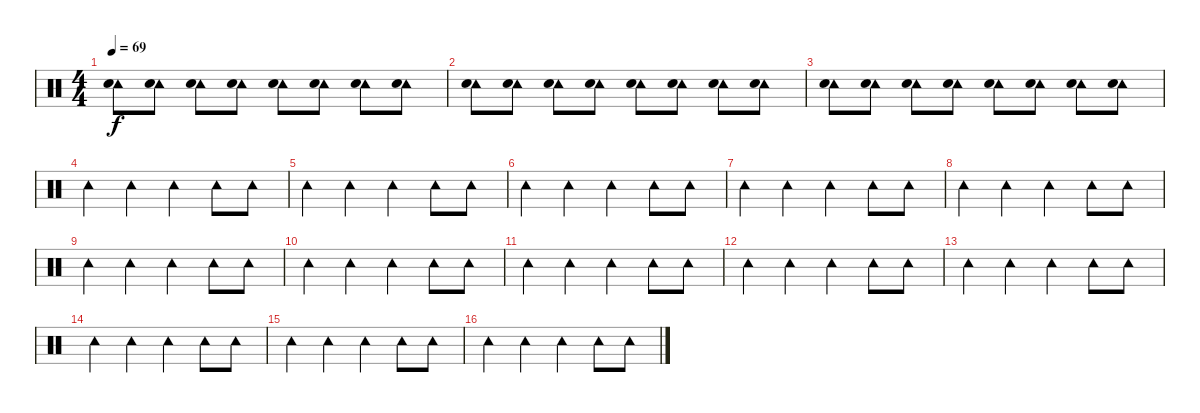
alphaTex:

\track "" {instrument percussion}
\staff {score}
\articulation defaults
\ts (4 4)
\tempo 69
\clef neutral
\ks c
("Tambourine (hit)" "Snare (hit) 2").8{dy f} ("Tambourine (hit)" "Snare (hit) 2").8 ("Tambourine (hit)" "Snare (hit) 2").8 ("Tambourine (hit)" "Snare (hit) 2").8 ("Tambourine (hit)" "Snare (hit) 2").8 ("Tambourine (hit)" "Snare (hit) 2").8 ("Tambourine (hit)" "Snare (hit) 2").8 ("Tambourine (hit)" "Snare (hit) 2").8 |
("Tambourine (hit)" "Snare (hit) 2").8 ("Tambourine (hit)" "Snare (hit) 2").8 ("Tambourine (hit)" "Snare (hit) 2").8 ("Tambourine (hit)" "Snare (hit) 2").8 ("Tambourine (hit)" "Snare (hit) 2").8 ("Tambourine (hit)" "Snare (hit) 2").8 ("Tambourine (hit)" "Snare (hit) 2").8 ("Tambourine (hit)" "Snare (hit) 2").8 |
("Tambourine (hit)" "Snare (hit) 2").8 ("Tambourine (hit)" "Snare (hit) 2").8 ("Tambourine (hit)" "Snare (hit) 2").8 ("Tambourine (hit)" "Snare (hit) 2").8 ("Tambourine (hit)" "Snare (hit) 2").8 ("Tambourine (hit)" "Snare (hit) 2").8 ("Tambourine (hit)" "Snare (hit) 2").8 ("Tambourine (hit)" "Snare (hit) 2").8 |
"Tambourine (hit)".4 "Tambourine (hit)".4 "Tambourine (hit)".4 "Tambourine (hit)".8 "Tambourine (hit)".8 |
"Tambourine (hit)".4 "Tambourine (hit)".4 "Tambourine (hit)".4 "Tambourine (hit)".8 "Tambourine (hit)".8 |
"Tambourine (hit)".4 "Tambourine (hit)".4 "Tambourine (hit)".4 "Tambourine (hit)".8 "Tambourine (hit)".8 |
"Tambourine (hit)".4 "Tambourine (hit)".4 "Tambourine (hit)".4 "Tambourine (hit)".8 "Tambourine (hit)".8 |
"Tambourine (hit)".4 "Tambourine (hit)".4 "Tambourine (hit)".4 "Tambourine (hit)".8 "Tambourine (hit)".8 |
"Tambourine (hit)".4 "Tambourine (hit)".4 "Tambourine (hit)".4 "Tambourine (hit)".8 "Tambourine (hit)".8 |
"Tambourine (hit)".4 "Tambourine (hit)".4 "Tambourine (hit)".4 "Tambourine (hit)".8 "Tambourine (hit)".8 |
"Tambourine (hit)".4 "Tambourine (hit)".4 "Tambourine (hit)".4 "Tambourine (hit)".8 "Tambourine (hit)".8 |
"Tambourine (hit)".4 "Tambourine (hit)".4 "Tambourine (hit)".4 "Tambourine (hit)".8 "Tambourine (hit)".8 |
"Tambourine (hit)".4 "Tambourine (hit)".4 "Tambourine (hit)".4 "Tambourine (hit)".8 "Tambourine (hit)".8 |
"Tambourine (hit)".4 "Tambourine (hit)".4 "Tambourine (hit)".4 "Tambourine (hit)".8 "Tambourine (hit)".8 |
"Tambourine (hit)".4 "Tambourine (hit)".4 "Tambourine (hit)".4 "Tambourine (hit)".8 "Tambourine (hit)".8 |
"Tambourine (hit)".4 "Tambourine (hit)".4 "Tambourine (hit)".4 "Tambourine (hit)".8 "Tambourine (hit)".8
